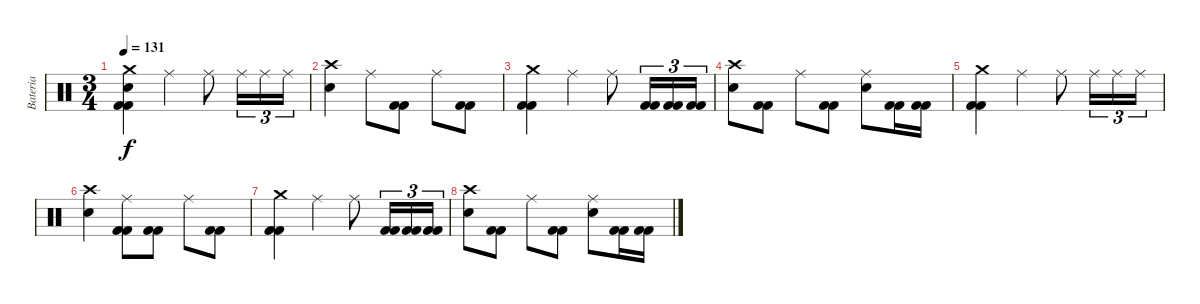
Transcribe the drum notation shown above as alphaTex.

\track ("Bateria" "Bateria") {instrument percussion}
\staff {score}
\articulation defaults
\ts (3 4)
\tempo 131
\clef neutral
\ks c
("Kick (hit) 2" "Kick (hit) 2" "Snare (hit) 2" "Crash medium (hit)").4{dy f volume 8} "Ride (middle)".4 "Ride (middle)".8 "Ride (middle)".16{tu (3 2)} "Ride (middle)".16{tu (3 2)} "Ride (middle)".16{tu (3 2)} |
("Snare (hit) 2" "Crash high (hit)").4 "Ride (middle)".8 ("Kick (hit) 2" "Kick (hit) 2").8 "Ride (middle)".8 ("Kick (hit) 2" "Kick (hit) 2").8 |
("Kick (hit) 2" "Kick (hit) 2" "Crash medium (hit)").4 "Ride (middle)".4 "Ride (middle)".8 ("Kick (hit) 2" "Kick (hit) 2").16{tu (3 2)} ("Kick (hit) 2" "Kick (hit) 2").16{tu (3 2)} ("Kick (hit) 2" "Kick (hit) 2").16{tu (3 2)} |
("Snare (hit) 2" "Crash high (hit)").8 ("Kick (hit) 2" "Kick (hit) 2").8 "Ride (middle)".8 ("Kick (hit) 2" "Kick (hit) 2").8 ("Snare (hit) 2" "Ride (middle)").8 ("Kick (hit) 2" "Kick (hit) 2").16 ("Kick (hit) 2" "Kick (hit) 2").16 |
("Kick (hit) 2" "Kick (hit) 2" "Crash medium (hit)").4{volume 0} "Ride (middle)".4 "Ride (middle)".8 "Ride (middle)".16{tu (3 2)} "Ride (middle)".16{tu (3 2)} "Ride (middle)".16{tu (3 2)} |
("Snare (hit) 2" "Crash high (hit)").4 ("Kick (hit) 2" "Kick (hit) 2" "Ride (middle)").8 ("Kick (hit) 2" "Kick (hit) 2").8 "Ride (middle)".8 ("Kick (hit) 2" "Kick (hit) 2").8 |
("Kick (hit) 2" "Kick (hit) 2" "Crash medium (hit)").4 "Ride (middle)".4 "Ride (middle)".8 ("Kick (hit) 2" "Kick (hit) 2").16{tu (3 2)} ("Kick (hit) 2" "Kick (hit) 2").16{tu (3 2)} ("Kick (hit) 2" "Kick (hit) 2").16{tu (3 2)} |
("Snare (hit) 2" "Crash high (hit)").8 ("Kick (hit) 2" "Kick (hit) 2").8 "Ride (middle)".8 ("Kick (hit) 2" "Kick (hit) 2").8 ("Snare (hit) 2" "Ride (middle)").8 ("Kick (hit) 2" "Kick (hit) 2").16 ("Kick (hit) 2" "Kick (hit) 2").16
